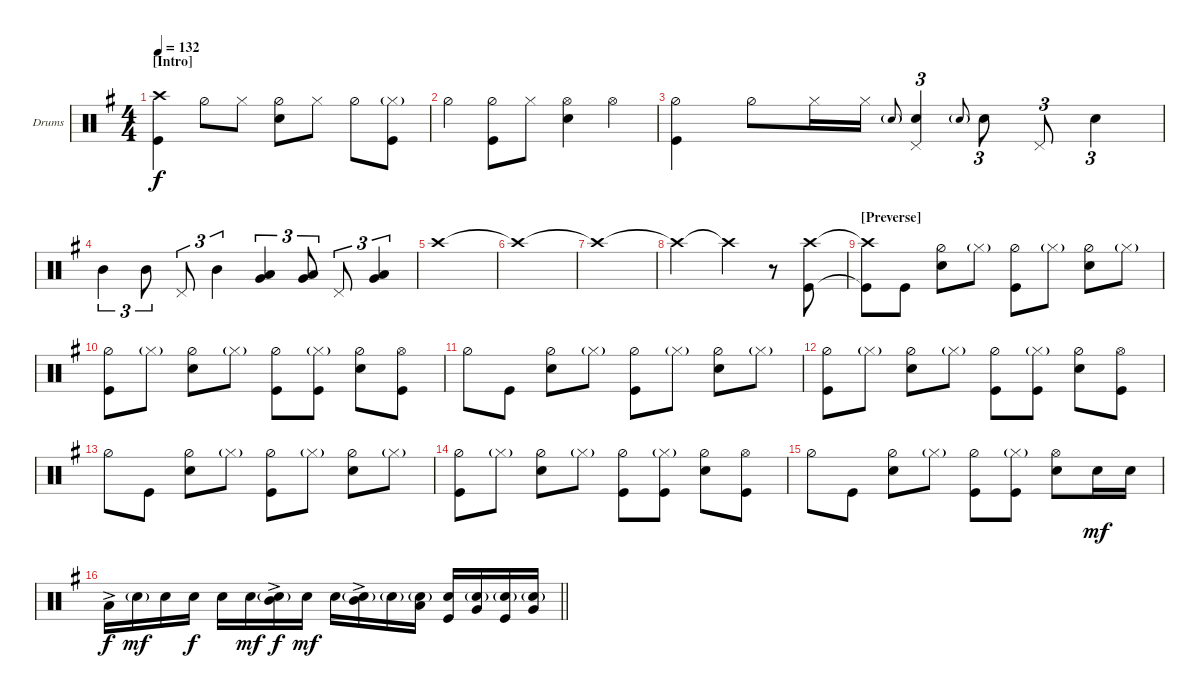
\bracketExtendMode groupsimilarinstruments
\firstSystemTrackNameOrientation horizontal
\otherSystemsTrackNameOrientation horizontal
\track ("Drumkit" "Drums") {instrument percussion}
\staff {score}
\articulation defaults
\ts (4 4)
\section ("" "[Intro]")
\tempo 132
\clef neutral
\scale
0.502183
\ks g
("Crash high (hit)" "Kick (hit)").4{dy f} "Hi-Hat (half)".8 "Hi-Hat (closed)".8 ("Hi-Hat (half)" "Snare (hit) 2").8 "Hi-Hat (closed)".8 "Hi-Hat (half)".8 ("Hi-Hat (closed)"{g} "Kick (hit)").8 |
\scale
0.248908 "Hi-Hat (half)".4 ("Hi-Hat (half)" "Kick (hit)").8 "Hi-Hat (closed)".8 ("Hi-Hat (open)" "Snare (hit) 2").4 "Hi-Hat (open)".4 |
\scale
0.248908 ("Hi-Hat (half)" "Kick (hit)").4 "Hi-Hat (half)".8 "Hi-Hat (closed)".16 "Hi-Hat (closed)".16 "Snare (hit) 2"{g}.8{gr onbeat} ("Pedal Hi-Hat (hit)" "Snare (hit) 2").4{tu (3 2)} "Snare (hit) 2"{g}.8{tu (3 2) gr onbeat} "Snare (hit) 2".8{tu (3 2)} "Pedal Hi-Hat (hit)".8{tu (3 2)} "Snare (hit) 2".4{tu (3 2)} |
\scale
0.333333 "Mid Tom (hit)".4{tu (3 2)} "Mid Tom (hit)".8{tu (3 2)} "Pedal Hi-Hat (hit)".8{tu (3 2)} "Mid Tom (hit)".4{tu (3 2)} ("Low Tom (hit)" "Very Low Tom (hit)").4{tu (3 2)} ("Low Tom (hit)" "Very Low Tom (hit)").8{tu (3 2)} "Pedal Hi-Hat (hit)".8{tu (3 2)} ("Low Tom (hit)" "Very Low Tom (hit)").4{tu (3 2)} |
\scale
0.333333 "Crash high (hit)".1 |
\scale
0.333333 "Crash high (hit)"{t}.1 |
"Crash high (hit)"{t}.1 |
\scale
0.333333 "Crash high (hit)"{t}.2 "Crash high (hit)"{t}.4 r.8 ("Crash high (hit)" "Kick (hit)").8 |
\section ("" "[Preverse]")
\scale
0.333333 ("Crash high (hit)"{t} "Kick (hit)"{t}).8 "Kick (hit)".8 ("Hi-Hat (half)" "Snare (hit) 2").8 "Hi-Hat (closed)"{g}.8 ("Hi-Hat (half)" "Kick (hit)").8 "Hi-Hat (closed)"{g}.8 ("Hi-Hat (half)" "Snare (hit) 2").8 "Hi-Hat (closed)"{g}.8 |
\scale
0.333333 ("Hi-Hat (half)" "Kick (hit)").8 "Hi-Hat (closed)"{g}.8 ("Hi-Hat (half)" "Snare (hit) 2").8 "Hi-Hat (closed)"{g}.8 ("Hi-Hat (half)" "Kick (hit)").8 ("Hi-Hat (closed)"{g} "Kick (hit)").8 ("Hi-Hat (half)" "Snare (hit) 2").8 ("Kick (hit)" "Hi-Hat (open)").8 |
\scale
0.333333 "Hi-Hat (half)".8 "Kick (hit)".8 ("Hi-Hat (half)" "Snare (hit) 2").8 "Hi-Hat (closed)"{g}.8 ("Hi-Hat (half)" "Kick (hit)").8 "Hi-Hat (closed)"{g}.8 ("Hi-Hat (half)" "Snare (hit) 2").8 "Hi-Hat (closed)"{g}.8 |
\scale
0.333333 ("Hi-Hat (half)" "Kick (hit)").8 "Hi-Hat (closed)"{g}.8 ("Hi-Hat (half)" "Snare (hit) 2").8 "Hi-Hat (closed)"{g}.8 ("Hi-Hat (half)" "Kick (hit)").8 ("Hi-Hat (closed)"{g} "Kick (hit)").8 ("Hi-Hat (half)" "Snare (hit) 2").8 ("Kick (hit)" "Hi-Hat (open)").8 |
\scale
0.333333 "Hi-Hat (half)".8 "Kick (hit)".8 ("Hi-Hat (half)" "Snare (hit) 2").8 "Hi-Hat (closed)"{g}.8 ("Hi-Hat (half)" "Kick (hit)").8 "Hi-Hat (closed)"{g}.8 ("Hi-Hat (half)" "Snare (hit) 2").8 "Hi-Hat (closed)"{g}.8 |
\scale
0.333333 ("Hi-Hat (half)" "Kick (hit)").8 "Hi-Hat (closed)"{g}.8 ("Hi-Hat (half)" "Snare (hit) 2").8 "Hi-Hat (closed)"{g}.8 ("Hi-Hat (half)" "Kick (hit)").8 ("Hi-Hat (closed)"{g} "Kick (hit)").8 ("Hi-Hat (half)" "Snare (hit) 2").8 ("Kick (hit)" "Hi-Hat (open)").8 |
\scale
0.333333 "Hi-Hat (half)".8 "Kick (hit)".8 ("Hi-Hat (half)" "Snare (hit) 2").8 "Hi-Hat (closed)"{g}.8 ("Hi-Hat (half)" "Kick (hit)").8 ("Hi-Hat (closed)"{g} "Kick (hit)").8 ("Hi-Hat (open)" "Snare (hit) 2").8 "Snare (hit) 2".16{dy mf} "Snare (hit) 2".16 |
\scale
0.333333
\barLineRight lightlight "Low Tom (hit)"{ac}.16{dy f} "Snare (hit) 2"{g}.16{dy mf} "Snare (hit) 2".16 "Snare (hit) 2".16{dy f} "Snare (hit) 2".16 "Snare (hit) 2".16{dy mf}
("Mid Tom (hit)"{ac} "Snare (hit) 2"{g}).16{dy f} "Snare (hit) 2".16{dy mf} "Snare (hit) 2".16 ("Snare (hit) 2"{g} "Mid Tom (hit)"{ac}).16 "Snare (hit) 2"{g}.16 ("Snare (hit) 2"{g} "Low Tom (hit)").16 ("Snare (hit) 2" "Kick (hit)").16 ("Snare (hit) 2"{g} "Very Low Tom (hit)").16 ("Snare (hit) 2"{g} "Kick (hit)").16 ("Snare (hit) 2"{g} "Very Low Tom (hit)").16
